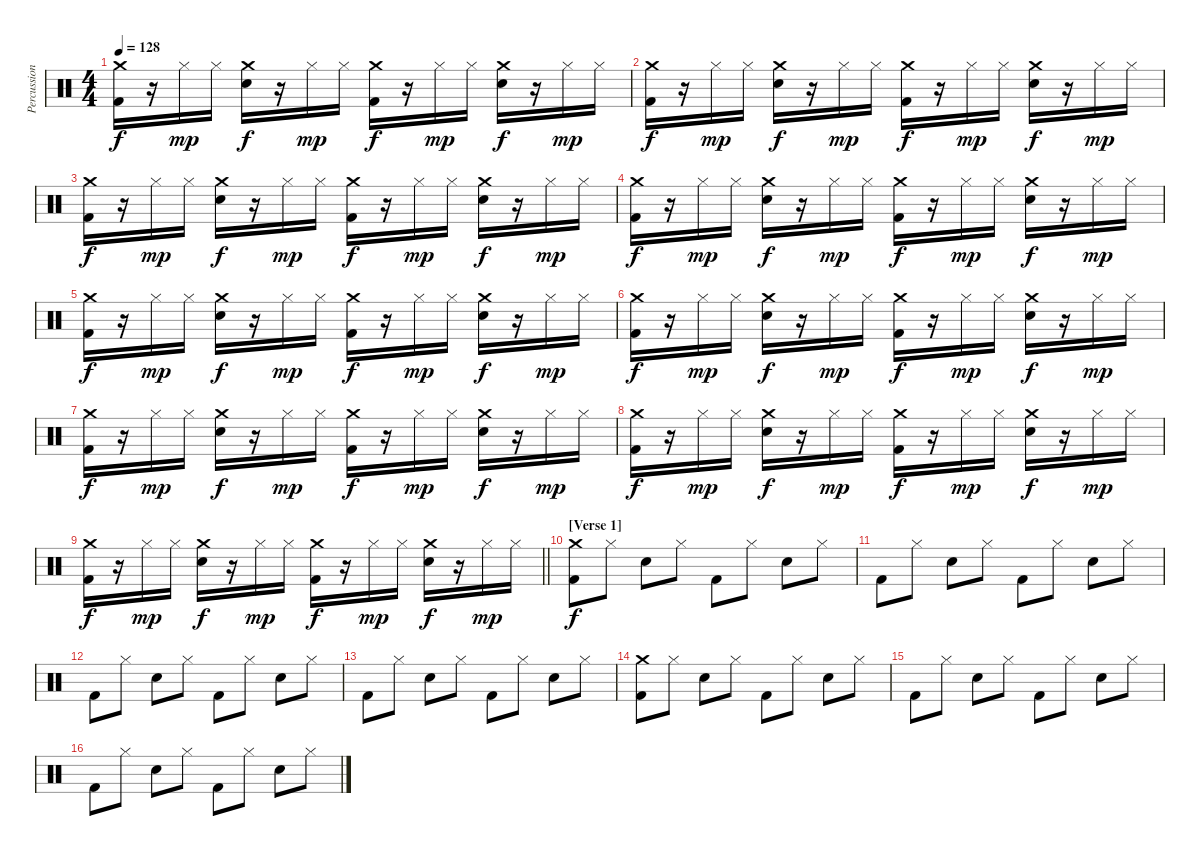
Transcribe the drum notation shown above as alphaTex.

\track ("Percussion" "Percussion") {instrument percussion}
\staff {score}
\articulation defaults
\ts (4 4)
\tempo 128
\clef neutral
\ks c
("Crash medium (hit)" "Kick (hit) 2").16{dy f} r.16 "Hi-Hat (closed)".16{dy mp} "Hi-Hat (closed)".16 ("Crash medium (hit)" "Snare (hit) 2").16{dy f} r.16 "Hi-Hat (closed)".16{dy mp} "Hi-Hat (closed)".16 ("Crash medium (hit)" "Kick (hit) 2").16{dy f} r.16 "Hi-Hat (closed)".16{dy mp} "Hi-Hat (closed)".16 ("Crash medium (hit)" "Snare (hit) 2").16{dy f} r.16 "Hi-Hat (closed)".16{dy mp} "Hi-Hat (closed)".16 |
("Crash medium (hit)" "Kick (hit) 2").16{dy f} r.16 "Hi-Hat (closed)".16{dy mp} "Hi-Hat (closed)".16 ("Crash medium (hit)" "Snare (hit) 2").16{dy f} r.16 "Hi-Hat (closed)".16{dy mp} "Hi-Hat (closed)".16 ("Crash medium (hit)" "Kick (hit) 2").16{dy f} r.16 "Hi-Hat (closed)".16{dy mp} "Hi-Hat (closed)".16 ("Crash medium (hit)" "Snare (hit) 2").16{dy f} r.16 "Hi-Hat (closed)".16{dy mp} "Hi-Hat (closed)".16 |
("Crash medium (hit)" "Kick (hit) 2").16{dy f} r.16 "Hi-Hat (closed)".16{dy mp} "Hi-Hat (closed)".16 ("Crash medium (hit)" "Snare (hit) 2").16{dy f} r.16 "Hi-Hat (closed)".16{dy mp} "Hi-Hat (closed)".16 ("Crash medium (hit)" "Kick (hit) 2").16{dy f} r.16 "Hi-Hat (closed)".16{dy mp} "Hi-Hat (closed)".16 ("Crash medium (hit)" "Snare (hit) 2").16{dy f} r.16 "Hi-Hat (closed)".16{dy mp} "Hi-Hat (closed)".16 |
("Crash medium (hit)" "Kick (hit) 2").16{dy f} r.16 "Hi-Hat (closed)".16{dy mp} "Hi-Hat (closed)".16 ("Crash medium (hit)" "Snare (hit) 2").16{dy f} r.16 "Hi-Hat (closed)".16{dy mp} "Hi-Hat (closed)".16 ("Crash medium (hit)" "Kick (hit) 2").16{dy f} r.16 "Hi-Hat (closed)".16{dy mp} "Hi-Hat (closed)".16 ("Crash medium (hit)" "Snare (hit) 2").16{dy f} r.16 "Hi-Hat (closed)".16{dy mp} "Hi-Hat (closed)".16 |
("Crash medium (hit)" "Kick (hit) 2").16{dy f} r.16 "Hi-Hat (closed)".16{dy mp} "Hi-Hat (closed)".16 ("Crash medium (hit)" "Snare (hit) 2").16{dy f} r.16 "Hi-Hat (closed)".16{dy mp} "Hi-Hat (closed)".16 ("Crash medium (hit)" "Kick (hit) 2").16{dy f} r.16 "Hi-Hat (closed)".16{dy mp} "Hi-Hat (closed)".16 ("Crash medium (hit)" "Snare (hit) 2").16{dy f} r.16 "Hi-Hat (closed)".16{dy mp} "Hi-Hat (closed)".16 |
("Crash medium (hit)" "Kick (hit) 2").16{dy f} r.16 "Hi-Hat (closed)".16{dy mp} "Hi-Hat (closed)".16 ("Crash medium (hit)" "Snare (hit) 2").16{dy f} r.16 "Hi-Hat (closed)".16{dy mp} "Hi-Hat (closed)".16 ("Crash medium (hit)" "Kick (hit) 2").16{dy f} r.16 "Hi-Hat (closed)".16{dy mp} "Hi-Hat (closed)".16 ("Crash medium (hit)" "Snare (hit) 2").16{dy f} r.16 "Hi-Hat (closed)".16{dy mp} "Hi-Hat (closed)".16 |
("Crash medium (hit)" "Kick (hit) 2").16{dy f} r.16 "Hi-Hat (closed)".16{dy mp} "Hi-Hat (closed)".16 ("Crash medium (hit)" "Snare (hit) 2").16{dy f} r.16 "Hi-Hat (closed)".16{dy mp} "Hi-Hat (closed)".16 ("Crash medium (hit)" "Kick (hit) 2").16{dy f} r.16 "Hi-Hat (closed)".16{dy mp} "Hi-Hat (closed)".16 ("Crash medium (hit)" "Snare (hit) 2").16{dy f} r.16 "Hi-Hat (closed)".16{dy mp} "Hi-Hat (closed)".16 |
("Crash medium (hit)" "Kick (hit) 2").16{dy f} r.16 "Hi-Hat (closed)".16{dy mp} "Hi-Hat (closed)".16 ("Crash medium (hit)" "Snare (hit) 2").16{dy f} r.16 "Hi-Hat (closed)".16{dy mp} "Hi-Hat (closed)".16 ("Crash medium (hit)" "Kick (hit) 2").16{dy f} r.16 "Hi-Hat (closed)".16{dy mp} "Hi-Hat (closed)".16 ("Crash medium (hit)" "Snare (hit) 2").16{dy f} r.16 "Hi-Hat (closed)".16{dy mp} "Hi-Hat (closed)".16 |
\barLineRight lightlight
("Crash medium (hit)" "Kick (hit) 2").16{dy f} r.16 "Hi-Hat (closed)".16{dy mp} "Hi-Hat (closed)".16 ("Crash medium (hit)" "Snare (hit) 2").16{dy f} r.16 "Hi-Hat (closed)".16{dy mp} "Hi-Hat (closed)".16 ("Crash medium (hit)" "Kick (hit) 2").16{dy f} r.16 "Hi-Hat (closed)".16{dy mp} "Hi-Hat (closed)".16 ("Crash medium (hit)" "Snare (hit) 2").16{dy f} r.16 "Hi-Hat (closed)".16{dy mp} "Hi-Hat (closed)".16 |
\section ("" "[Verse 1]")
("Crash medium (hit)" "Kick (hit) 2").8{dy f} "Hi-Hat (closed)".8 "Snare (hit) 2".8 "Hi-Hat (closed)".8 "Kick (hit) 2".8 "Hi-Hat (closed)".8 "Snare (hit) 2".8 "Hi-Hat (closed)".8 |
"Kick (hit) 2".8 "Hi-Hat (closed)".8 "Snare (hit) 2".8 "Hi-Hat (closed)".8 "Kick (hit) 2".8 "Hi-Hat (closed)".8 "Snare (hit) 2".8 "Hi-Hat (closed)".8 |
"Kick (hit) 2".8 "Hi-Hat (closed)".8 "Snare (hit) 2".8 "Hi-Hat (closed)".8 "Kick (hit) 2".8 "Hi-Hat (closed)".8 "Snare (hit) 2".8 "Hi-Hat (closed)".8 |
"Kick (hit) 2".8 "Hi-Hat (closed)".8 "Snare (hit) 2".8 "Hi-Hat (closed)".8 "Kick (hit) 2".8 "Hi-Hat (closed)".8 "Snare (hit) 2".8 "Hi-Hat (closed)".8 |
("Crash medium (hit)" "Kick (hit) 2").8 "Hi-Hat (closed)".8 "Snare (hit) 2".8 "Hi-Hat (closed)".8 "Kick (hit) 2".8 "Hi-Hat (closed)".8 "Snare (hit) 2".8 "Hi-Hat (closed)".8 |
"Kick (hit) 2".8 "Hi-Hat (closed)".8 "Snare (hit) 2".8 "Hi-Hat (closed)".8 "Kick (hit) 2".8 "Hi-Hat (closed)".8 "Snare (hit) 2".8 "Hi-Hat (closed)".8 |
"Kick (hit) 2".8 "Hi-Hat (closed)".8 "Snare (hit) 2".8 "Hi-Hat (closed)".8 "Kick (hit) 2".8 "Hi-Hat (closed)".8 "Snare (hit) 2".8 "Hi-Hat (closed)".8
